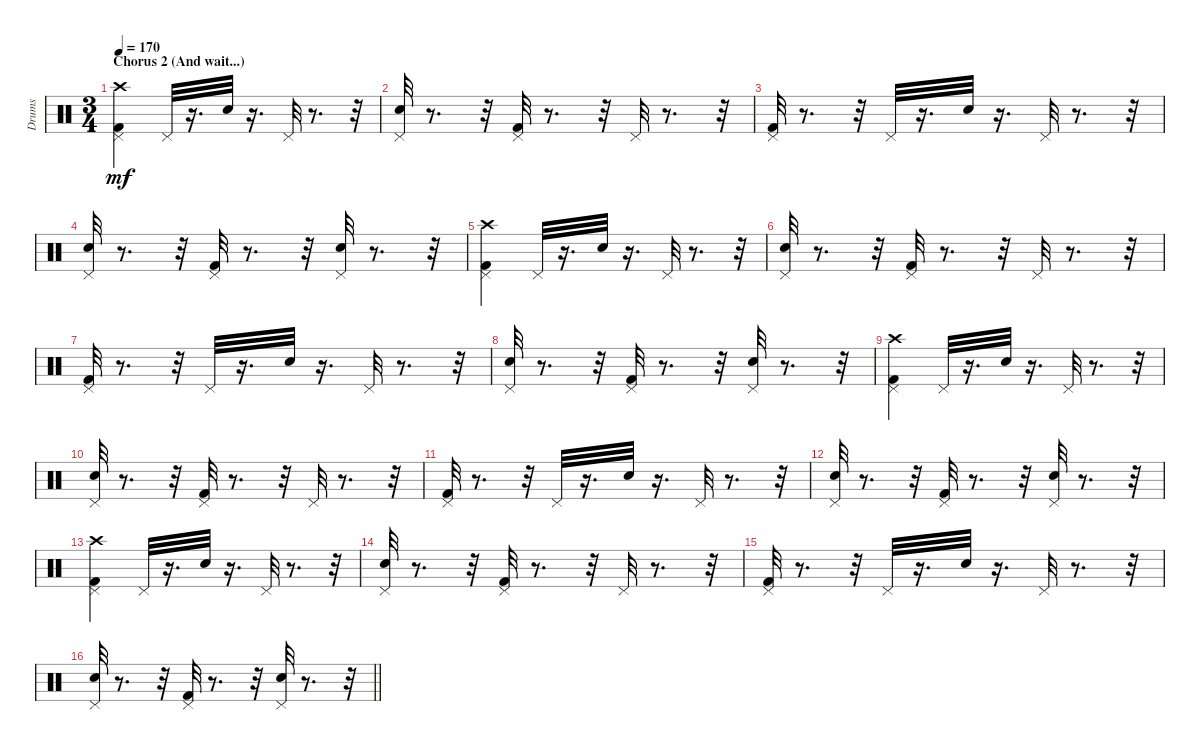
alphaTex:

\track ("Drums" "Drums") {instrument percussion}
\staff {score}
\articulation defaults
\ts (3 4)
\section ("" "Chorus 2 (And wait...)")
\tempo 170
\clef neutral
\ks c
("Kick (hit) 2" "Pedal Hi-Hat (hit)" "Crash high (hit)").4{dy mf} "Pedal Hi-Hat (hit)".32 r.16{d} "Snare (hit) 2".32 r.16{d} "Pedal Hi-Hat (hit)".32 r.8{d} r.32 |
("Snare (hit) 2" "Pedal Hi-Hat (hit)").32 r.8{d} r.32 ("Kick (hit) 2" "Pedal Hi-Hat (hit)").32 r.8{d} r.32 "Pedal Hi-Hat (hit)".32 r.8{d} r.32 |
("Kick (hit) 2" "Pedal Hi-Hat (hit)").32 r.8{d} r.32 "Pedal Hi-Hat (hit)".32 r.16{d} "Snare (hit) 2".32 r.16{d} "Pedal Hi-Hat (hit)".32 r.8{d} r.32 |
("Snare (hit) 2" "Pedal Hi-Hat (hit)").32 r.8{d} r.32 ("Kick (hit) 2" "Pedal Hi-Hat (hit)").32 r.8{d} r.32 ("Snare (hit) 2" "Pedal Hi-Hat (hit)").32 r.8{d} r.32 |
("Kick (hit) 2" "Pedal Hi-Hat (hit)" "Crash high (hit)").4 "Pedal Hi-Hat (hit)".32 r.16{d} "Snare (hit) 2".32 r.16{d} "Pedal Hi-Hat (hit)".32 r.8{d} r.32 |
("Snare (hit) 2" "Pedal Hi-Hat (hit)").32 r.8{d} r.32 ("Kick (hit) 2" "Pedal Hi-Hat (hit)").32 r.8{d} r.32 "Pedal Hi-Hat (hit)".32 r.8{d} r.32 |
("Kick (hit) 2" "Pedal Hi-Hat (hit)").32 r.8{d} r.32 "Pedal Hi-Hat (hit)".32 r.16{d} "Snare (hit) 2".32 r.16{d} "Pedal Hi-Hat (hit)".32 r.8{d} r.32 |
("Snare (hit) 2" "Pedal Hi-Hat (hit)").32 r.8{d} r.32 ("Kick (hit) 2" "Pedal Hi-Hat (hit)").32 r.8{d} r.32 ("Snare (hit) 2" "Pedal Hi-Hat (hit)").32 r.8{d} r.32 |
("Kick (hit) 2" "Pedal Hi-Hat (hit)" "Crash high (hit)").4 "Pedal Hi-Hat (hit)".32 r.16{d} "Snare (hit) 2".32 r.16{d} "Pedal Hi-Hat (hit)".32 r.8{d} r.32 |
("Snare (hit) 2" "Pedal Hi-Hat (hit)").32 r.8{d} r.32 ("Kick (hit) 2" "Pedal Hi-Hat (hit)").32 r.8{d} r.32 "Pedal Hi-Hat (hit)".32 r.8{d} r.32 |
("Kick (hit) 2" "Pedal Hi-Hat (hit)").32 r.8{d} r.32 "Pedal Hi-Hat (hit)".32 r.16{d} "Snare (hit) 2".32 r.16{d} "Pedal Hi-Hat (hit)".32 r.8{d} r.32 |
("Snare (hit) 2" "Pedal Hi-Hat (hit)").32 r.8{d} r.32 ("Kick (hit) 2" "Pedal Hi-Hat (hit)").32 r.8{d} r.32 ("Snare (hit) 2" "Pedal Hi-Hat (hit)").32 r.8{d} r.32 |
("Kick (hit) 2" "Pedal Hi-Hat (hit)" "Crash high (hit)").4 "Pedal Hi-Hat (hit)".32 r.16{d} "Snare (hit) 2".32 r.16{d} "Pedal Hi-Hat (hit)".32 r.8{d} r.32 |
("Snare (hit) 2" "Pedal Hi-Hat (hit)").32 r.8{d} r.32 ("Kick (hit) 2" "Pedal Hi-Hat (hit)").32 r.8{d} r.32 "Pedal Hi-Hat (hit)".32 r.8{d} r.32 |
("Kick (hit) 2" "Pedal Hi-Hat (hit)").32 r.8{d} r.32 "Pedal Hi-Hat (hit)".32 r.16{d} "Snare (hit) 2".32 r.16{d} "Pedal Hi-Hat (hit)".32 r.8{d} r.32 |
\barLineRight lightlight
("Snare (hit) 2" "Pedal Hi-Hat (hit)").32 r.8{d} r.32 ("Kick (hit) 2" "Pedal Hi-Hat (hit)").32 r.8{d} r.32 ("Snare (hit) 2" "Pedal Hi-Hat (hit)").32 r.8{d} r.32
